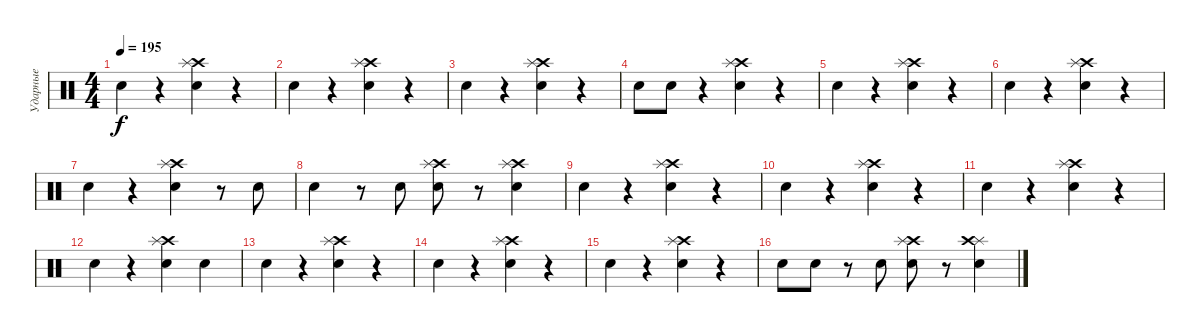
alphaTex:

\track ("Ударные" "Ударные") {instrument percussion}
\staff {score}
\articulation defaults
\ts (4 4)
\tempo 195
\clef neutral
\ks c "Snare (hit) 2".4{dy f}
r.4 ("Snare (hit) 2" "Crash high (hit)" "Splash (hit)").4 r.4 |
"Snare (hit) 2".4 r.4 ("Snare (hit) 2" "Crash high (hit)" "Splash (hit)").4 r.4 |
"Snare (hit) 2".4 r.4 ("Snare (hit) 2" "Crash high (hit)" "Splash (hit)").4 r.4 |
"Snare (hit) 2".8 "Snare (hit) 2".8 r.4 ("Snare (hit) 2" "Crash high (hit)" "Splash (hit)").4 r.4 |
"Snare (hit) 2".4 r.4 ("Snare (hit) 2" "Crash high (hit)" "Splash (hit)").4 r.4 |
"Snare (hit) 2".4 r.4 ("Snare (hit) 2" "Crash high (hit)" "Splash (hit)").4 r.4 |
"Snare (hit) 2".4 r.4 ("Snare (hit) 2" "Crash high (hit)" "Splash (hit)").4 r.8 "Snare (hit) 2".8 |
"Snare (hit) 2".4 r.8 "Snare (hit) 2".8 ("Snare (hit) 2" "Crash high (hit)" "Splash (hit)").8 r.8 ("Snare (hit) 2" "Crash high (hit)" "Splash (hit)").4 |
"Snare (hit) 2".4 r.4 ("Snare (hit) 2" "Crash high (hit)" "Splash (hit)").4 r.4 |
"Snare (hit) 2".4 r.4 ("Snare (hit) 2" "Crash high (hit)" "Splash (hit)").4 r.4 |
"Snare (hit) 2".4 r.4 ("Snare (hit) 2" "Crash high (hit)" "Splash (hit)").4 r.4 |
"Snare (hit) 2".4 r.4 ("Snare (hit) 2" "Crash high (hit)" "Splash (hit)").4 "Snare (hit) 2".4 |
"Snare (hit) 2".4 r.4 ("Snare (hit) 2" "Crash high (hit)" "Splash (hit)").4 r.4 |
"Snare (hit) 2".4 r.4 ("Snare (hit) 2" "Crash high (hit)" "Splash (hit)").4 r.4 |
"Snare (hit) 2".4 r.4 ("Snare (hit) 2" "Crash high (hit)" "Splash (hit)").4 r.4 |
"Snare (hit) 2".8 "Snare (hit) 2".8 r.8 "Snare (hit) 2".8 ("Snare (hit) 2" "Crash high (hit)" "Splash (hit)").8 r.8 ("Snare (hit) 2" "Splash (hit)" "Crash high (hit)").4
